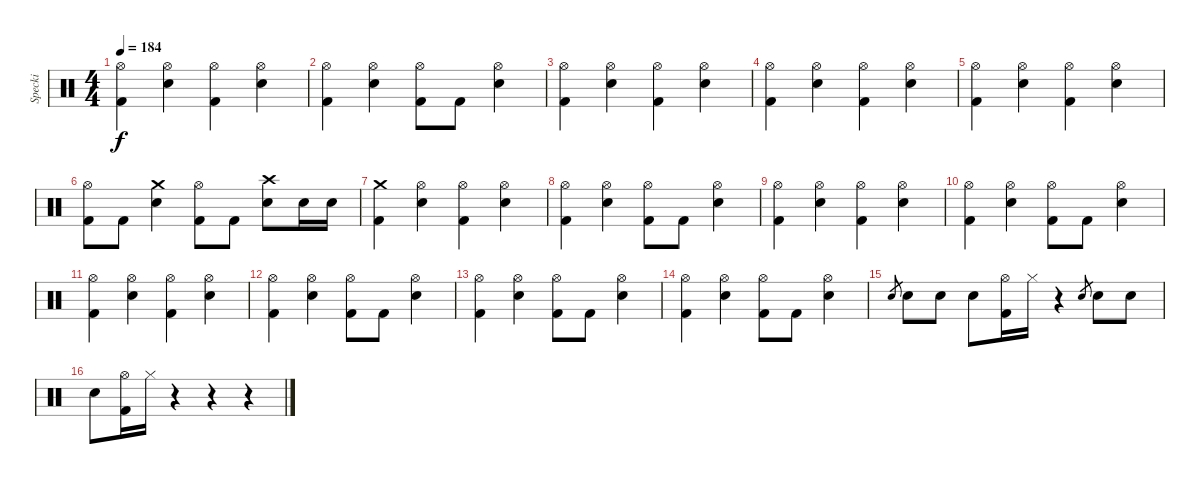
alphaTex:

\track ("Specki" "Specki") {instrument percussion}
\staff {score}
\articulation defaults
\ts (4 4)
\tempo 184
\clef neutral
\ks c
("Hi-Hat (open)" "Kick (hit) 2").4{dy f} ("Hi-Hat (open)" "Electric Snare (hit)").4 ("Hi-Hat (open)" "Kick (hit) 2").4 ("Hi-Hat (open)" "Electric Snare (hit)").4 |
("Hi-Hat (open)" "Kick (hit) 2").4 ("Hi-Hat (open)" "Electric Snare (hit)").4 ("Hi-Hat (open)" "Kick (hit) 2").8 "Kick (hit) 2".8 ("Hi-Hat (open)" "Electric Snare (hit)").4 |
("Hi-Hat (open)" "Kick (hit) 2").4 ("Hi-Hat (open)" "Electric Snare (hit)").4 ("Hi-Hat (open)" "Kick (hit) 2").4 ("Hi-Hat (open)" "Electric Snare (hit)").4 |
("Hi-Hat (open)" "Kick (hit) 2").4 ("Hi-Hat (open)" "Electric Snare (hit)").4 ("Hi-Hat (open)" "Kick (hit) 2").4 ("Hi-Hat (open)" "Electric Snare (hit)").4 |
("Hi-Hat (open)" "Kick (hit) 2").4 ("Hi-Hat (open)" "Electric Snare (hit)").4 ("Hi-Hat (open)" "Kick (hit) 2").4 ("Hi-Hat (open)" "Electric Snare (hit)").4 |
("Hi-Hat (open)" "Kick (hit) 2").8 "Kick (hit) 2".8 ("Crash medium (hit)" "Electric Snare (hit)").4 ("Hi-Hat (open)" "Kick (hit) 2").8 "Kick (hit) 2".8 ("Crash high (hit)" "Electric Snare (hit)").8 "Electric Snare (hit)".16 "Electric Snare (hit)".16 |
("Crash medium (hit)" "Kick (hit) 2").4 ("Hi-Hat (open)" "Electric Snare (hit)").4 ("Hi-Hat (open)" "Kick (hit) 2").4 ("Hi-Hat (open)" "Electric Snare (hit)").4 |
("Hi-Hat (open)" "Kick (hit) 2").4 ("Hi-Hat (open)" "Electric Snare (hit)").4 ("Hi-Hat (open)" "Kick (hit) 2").8 "Kick (hit) 2".8 ("Hi-Hat (open)" "Electric Snare (hit)").4 |
("Hi-Hat (open)" "Kick (hit) 2").4 ("Hi-Hat (open)" "Electric Snare (hit)").4 ("Hi-Hat (open)" "Kick (hit) 2").4 ("Hi-Hat (open)" "Electric Snare (hit)").4 |
("Hi-Hat (open)" "Kick (hit) 2").4 ("Hi-Hat (open)" "Electric Snare (hit)").4 ("Hi-Hat (open)" "Kick (hit) 2").8 "Kick (hit) 2".8 ("Hi-Hat (open)" "Electric Snare (hit)").4 |
("Hi-Hat (open)" "Kick (hit) 2").4 ("Hi-Hat (open)" "Electric Snare (hit)").4 ("Hi-Hat (open)" "Kick (hit) 2").4 ("Hi-Hat (open)" "Electric Snare (hit)").4 |
("Hi-Hat (open)" "Kick (hit) 2").4 ("Hi-Hat (open)" "Electric Snare (hit)").4 ("Hi-Hat (open)" "Kick (hit) 2").8 "Kick (hit) 2".8 ("Hi-Hat (open)" "Electric Snare (hit)").4 |
("Hi-Hat (open)" "Kick (hit) 2").4 ("Hi-Hat (open)" "Electric Snare (hit)").4 ("Hi-Hat (open)" "Kick (hit) 2").8 "Kick (hit) 2".8 ("Hi-Hat (open)" "Electric Snare (hit)").4 |
("Hi-Hat (open)" "Kick (hit) 2").4 ("Hi-Hat (open)" "Electric Snare (hit)").4 ("Hi-Hat (open)" "Kick (hit) 2").8 "Kick (hit) 2".8 ("Hi-Hat (open)" "Electric Snare (hit)").4 |
"Electric Snare (hit)".8{gr} "Electric Snare (hit)".8 "Electric Snare (hit)".8 "Electric Snare (hit)".8 ("Hi-Hat (open)" "Kick (hit) 2").16 "Hi-Hat (closed)".16 r.4 "Electric Snare (hit)".8{gr} "Electric Snare (hit)".8 "Electric Snare (hit)".8 |
"Electric Snare (hit)".8 ("Hi-Hat (open)" "Kick (hit) 2").16 "Hi-Hat (closed)".16 r.4 r.4 r.4
